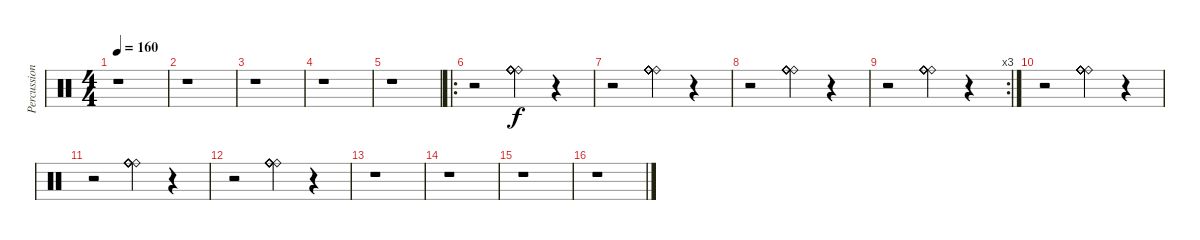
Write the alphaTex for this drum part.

\track ("Percussion" "Percussion") {instrument percussion}
\staff {score}
\articulation defaults
\ts (4 4)
\tempo 160
\clef neutral
\ks c
r.1{dy f} |
r.1 |
r.1 |
r.1 |
r.1 |
\ro
r.2 ("Ride (bell)" "Ride (bell)" "Ride (bell)" "Ride (bell)" "Ride (bell)" "Ride (bell)").4 r.4 |
r.2 ("Ride (bell)" "Ride (bell)" "Ride (bell)" "Ride (bell)" "Ride (bell)" "Ride (bell)").4 r.4 |
r.2 ("Ride (bell)" "Ride (bell)" "Ride (bell)" "Ride (bell)" "Ride (bell)" "Ride (bell)").4 r.4 |
\rc 3
r.2 ("Ride (bell)" "Ride (bell)" "Ride (bell)" "Ride (bell)" "Ride (bell)" "Ride (bell)").4 r.4 |
r.2 ("Ride (bell)" "Ride (bell)" "Ride (bell)" "Ride (bell)" "Ride (bell)" "Ride (bell)").4 r.4 |
r.2 ("Ride (bell)" "Ride (bell)" "Ride (bell)" "Ride (bell)" "Ride (bell)" "Ride (bell)").4 r.4 |
r.2 ("Ride (bell)" "Ride (bell)" "Ride (bell)" "Ride (bell)" "Ride (bell)" "Ride (bell)").4 r.4 |
r.1 |
r.1 |
r.1 |
r.1
